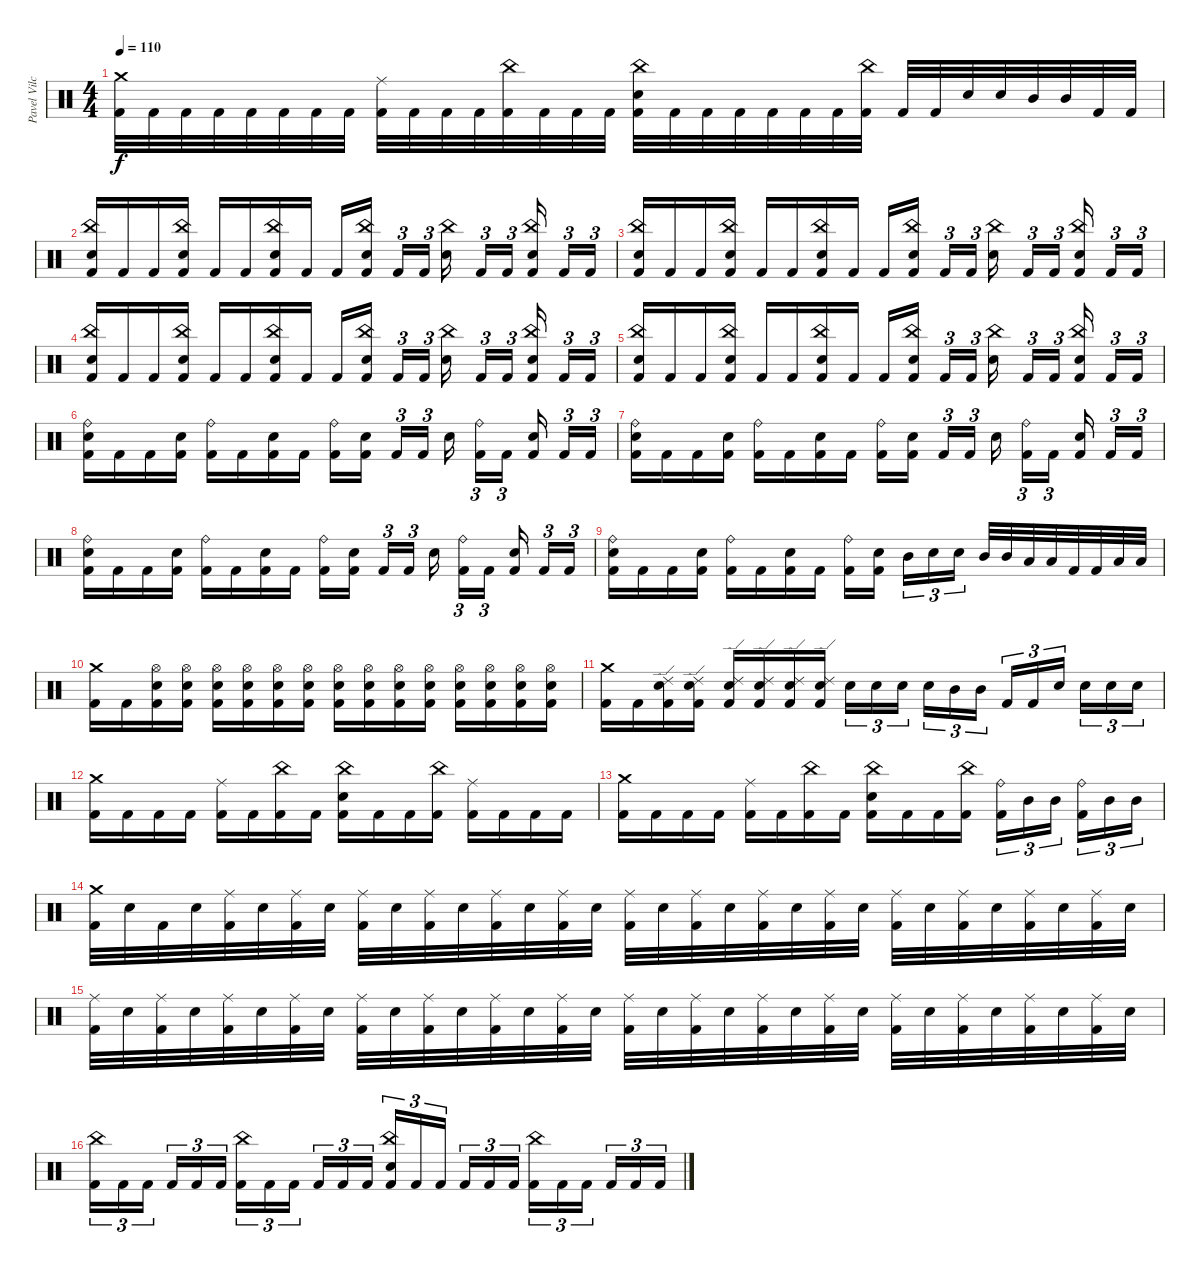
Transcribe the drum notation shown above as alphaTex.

\track ("Pavel Vilchytski" "Pavel Vilc") {instrument percussion}
\staff {score}
\articulation defaults
\ts (4 4)
\tempo 110
\clef neutral
\ks c
("Crash medium (hit)" "Kick (hit) 2").32{dy f} "Kick (hit) 2".32 "Kick (hit) 2".32 "Kick (hit) 2".32 "Kick (hit) 2".32 "Kick (hit) 2".32 "Kick (hit) 2".32 "Kick (hit) 2".32 ("Ride (middle)" "Kick (hit) 2").32 "Kick (hit) 2".32 "Kick (hit) 2".32 "Kick (hit) 2".32 ("China (hit)" "Kick (hit) 2").32 "Kick (hit) 2".32 "Kick (hit) 2".32 "Kick (hit) 2".32 ("China (hit)" "Electric Snare (hit)" "Kick (hit) 2").32 "Kick (hit) 2".32 "Kick (hit) 2".32 "Kick (hit) 2".32 "Kick (hit) 2".32 "Kick (hit) 2".32 "Kick (hit) 2".32 ("China (hit)" "Kick (hit) 2").32 "Kick (hit) 2".32 "Kick (hit) 2".32 "Electric Snare (hit)".32 "Electric Snare (hit)".32 "Mid Tom (hit)".32 "Mid Tom (hit)".32 "Kick (hit) 2".32 "Kick (hit) 2".32 |
("China (hit)" "Electric Snare (hit)" "Kick (hit) 2").16 "Kick (hit) 2".16 "Kick (hit) 2".16 ("China (hit)" "Electric Snare (hit)" "Kick (hit) 2").16 "Kick (hit) 2".16 "Kick (hit) 2".16 ("China (hit)" "Electric Snare (hit)" "Kick (hit) 2").16 "Kick (hit) 2".16 "Kick (hit) 2".16 ("China (hit)" "Electric Snare (hit)" "Kick (hit) 2").16{beam splitsecondary} "Kick (hit) 2".16{tu (3 2)} "Kick (hit) 2".16{tu (3 2) beam splitsecondary} ("China (hit)" "Electric Snare (hit)").16 "Kick (hit) 2".16{tu (3 2)} "Kick (hit) 2".16{tu (3 2) beam splitsecondary} ("China (hit)" "Electric Snare (hit)" "Kick (hit) 2").16{beam splitsecondary} "Kick (hit) 2".16{tu (3 2)} "Kick (hit) 2".16{tu (3 2)} |
("China (hit)" "Electric Snare (hit)" "Kick (hit) 2").16 "Kick (hit) 2".16 "Kick (hit) 2".16 ("China (hit)" "Electric Snare (hit)" "Kick (hit) 2").16 "Kick (hit) 2".16 "Kick (hit) 2".16 ("China (hit)" "Electric Snare (hit)" "Kick (hit) 2").16 "Kick (hit) 2".16 "Kick (hit) 2".16 ("China (hit)" "Electric Snare (hit)" "Kick (hit) 2").16{beam splitsecondary} "Kick (hit) 2".16{tu (3 2)} "Kick (hit) 2".16{tu (3 2) beam splitsecondary} ("China (hit)" "Electric Snare (hit)").16 "Kick (hit) 2".16{tu (3 2)} "Kick (hit) 2".16{tu (3 2) beam splitsecondary} ("China (hit)" "Electric Snare (hit)" "Kick (hit) 2").16{beam splitsecondary} "Kick (hit) 2".16{tu (3 2)} "Kick (hit) 2".16{tu (3 2)} |
("China (hit)" "Electric Snare (hit)" "Kick (hit) 2").16 "Kick (hit) 2".16 "Kick (hit) 2".16 ("China (hit)" "Electric Snare (hit)" "Kick (hit) 2").16 "Kick (hit) 2".16 "Kick (hit) 2".16 ("China (hit)" "Electric Snare (hit)" "Kick (hit) 2").16 "Kick (hit) 2".16 "Kick (hit) 2".16 ("China (hit)" "Electric Snare (hit)" "Kick (hit) 2").16{beam splitsecondary} "Kick (hit) 2".16{tu (3 2)} "Kick (hit) 2".16{tu (3 2) beam splitsecondary} ("China (hit)" "Electric Snare (hit)").16 "Kick (hit) 2".16{tu (3 2)} "Kick (hit) 2".16{tu (3 2) beam splitsecondary} ("China (hit)" "Electric Snare (hit)" "Kick (hit) 2").16{beam splitsecondary} "Kick (hit) 2".16{tu (3 2)} "Kick (hit) 2".16{tu (3 2)} |
("China (hit)" "Electric Snare (hit)" "Kick (hit) 2").16 "Kick (hit) 2".16 "Kick (hit) 2".16 ("China (hit)" "Electric Snare (hit)" "Kick (hit) 2").16 "Kick (hit) 2".16 "Kick (hit) 2".16 ("China (hit)" "Electric Snare (hit)" "Kick (hit) 2").16 "Kick (hit) 2".16 "Kick (hit) 2".16 ("China (hit)" "Electric Snare (hit)" "Kick (hit) 2").16{beam splitsecondary} "Kick (hit) 2".16{tu (3 2)} "Kick (hit) 2".16{tu (3 2) beam splitsecondary} ("China (hit)" "Electric Snare (hit)").16 "Kick (hit) 2".16{tu (3 2)} "Kick (hit) 2".16{tu (3 2) beam splitsecondary} ("China (hit)" "Electric Snare (hit)" "Kick (hit) 2").16{beam splitsecondary} "Kick (hit) 2".16{tu (3 2)} "Kick (hit) 2".16{tu (3 2)} |
("Ride (bell)" "Electric Snare (hit)" "Kick (hit) 2").16 "Kick (hit) 2".16 "Kick (hit) 2".16 ("Electric Snare (hit)" "Kick (hit) 2").16 ("Ride (bell)" "Kick (hit) 2").16 "Kick (hit) 2".16 ("Electric Snare (hit)" "Kick (hit) 2").16 "Kick (hit) 2".16 ("Ride (bell)" "Kick (hit) 2").16 ("Electric Snare (hit)" "Kick (hit) 2").16{beam splitsecondary} "Kick (hit) 2".16{tu (3 2)} "Kick (hit) 2".16{tu (3 2) beam splitsecondary} "Electric Snare (hit)".16 ("Ride (bell)" "Kick (hit) 2").16{tu (3 2)} "Kick (hit) 2".16{tu (3 2) beam splitsecondary} ("Electric Snare (hit)" "Kick (hit) 2").16{beam splitsecondary} "Kick (hit) 2".16{tu (3 2)} "Kick (hit) 2".16{tu (3 2)} |
("Ride (bell)" "Electric Snare (hit)" "Kick (hit) 2").16 "Kick (hit) 2".16 "Kick (hit) 2".16 ("Electric Snare (hit)" "Kick (hit) 2").16 ("Ride (bell)" "Kick (hit) 2").16 "Kick (hit) 2".16 ("Electric Snare (hit)" "Kick (hit) 2").16 "Kick (hit) 2".16 ("Ride (bell)" "Kick (hit) 2").16 ("Electric Snare (hit)" "Kick (hit) 2").16{beam splitsecondary} "Kick (hit) 2".16{tu (3 2)} "Kick (hit) 2".16{tu (3 2) beam splitsecondary} "Electric Snare (hit)".16 ("Ride (bell)" "Kick (hit) 2").16{tu (3 2)} "Kick (hit) 2".16{tu (3 2) beam splitsecondary} ("Electric Snare (hit)" "Kick (hit) 2").16{beam splitsecondary} "Kick (hit) 2".16{tu (3 2)} "Kick (hit) 2".16{tu (3 2)} |
("Ride (bell)" "Electric Snare (hit)" "Kick (hit) 2").16 "Kick (hit) 2".16 "Kick (hit) 2".16 ("Electric Snare (hit)" "Kick (hit) 2").16 ("Ride (bell)" "Kick (hit) 2").16 "Kick (hit) 2".16 ("Electric Snare (hit)" "Kick (hit) 2").16 "Kick (hit) 2".16 ("Ride (bell)" "Kick (hit) 2").16 ("Electric Snare (hit)" "Kick (hit) 2").16{beam splitsecondary} "Kick (hit) 2".16{tu (3 2)} "Kick (hit) 2".16{tu (3 2) beam splitsecondary} "Electric Snare (hit)".16 ("Ride (bell)" "Kick (hit) 2").16{tu (3 2)} "Kick (hit) 2".16{tu (3 2) beam splitsecondary} ("Electric Snare (hit)" "Kick (hit) 2").16{beam splitsecondary} "Kick (hit) 2".16{tu (3 2)} "Kick (hit) 2".16{tu (3 2)} |
("Ride (bell)" "Electric Snare (hit)" "Kick (hit) 2").16 "Kick (hit) 2".16 "Kick (hit) 2".16 ("Electric Snare (hit)" "Kick (hit) 2").16 ("Ride (bell)" "Kick (hit) 2").16 "Kick (hit) 2".16 ("Electric Snare (hit)" "Kick (hit) 2").16 "Kick (hit) 2".16 ("Ride (bell)" "Kick (hit) 2").16 ("Electric Snare (hit)" "Kick (hit) 2").16{beam splitsecondary} "Mid Tom (hit)".16{tu (3 2)} "Electric Snare (hit)".16{tu (3 2)} "Electric Snare (hit)".16{tu (3 2)} "Mid Tom (hit)".32 "Mid Tom (hit)".32 "Low Tom (hit)".32 "Low Tom (hit)".32 "Kick (hit) 2".32 "Kick (hit) 2".32 "Low Tom (hit)".32 "Low Tom (hit)".32 |
("Crash medium (hit)" "Kick (hit) 2").16 "Kick (hit) 2".16 ("Hi-Hat (open)" "Electric Snare (hit)" "Kick (hit) 2").16 ("Hi-Hat (open)" "Electric Snare (hit)" "Kick (hit) 2").16 ("Hi-Hat (open)" "Electric Snare (hit)" "Kick (hit) 2").16 ("Hi-Hat (open)" "Electric Snare (hit)" "Kick (hit) 2").16 ("Hi-Hat (open)" "Electric Snare (hit)" "Kick (hit) 2").16 ("Hi-Hat (open)" "Electric Snare (hit)" "Kick (hit) 2").16 ("Hi-Hat (open)" "Electric Snare (hit)" "Kick (hit) 2").16 ("Hi-Hat (open)" "Electric Snare (hit)" "Kick (hit) 2").16 ("Hi-Hat (open)" "Electric Snare (hit)" "Kick (hit) 2").16 ("Hi-Hat (open)" "Electric Snare (hit)" "Kick (hit) 2").16 ("Hi-Hat (open)" "Electric Snare (hit)" "Kick (hit) 2").16 ("Hi-Hat (open)" "Electric Snare (hit)" "Kick (hit) 2").16 ("Hi-Hat (open)" "Electric Snare (hit)" "Kick (hit) 2").16 ("Hi-Hat (open)" "Electric Snare (hit)" "Kick (hit) 2").16 |
("Crash medium (hit)" "Kick (hit) 2").16 "Kick (hit) 2".16 ("Ride (edge) 2" "Electric Snare (hit)" "Kick (hit) 2").16 ("Ride (edge) 2" "Electric Snare (hit)" "Kick (hit) 2").16 ("Ride (edge) 2" "Electric Snare (hit)" "Kick (hit) 2").16 ("Ride (edge) 2" "Electric Snare (hit)" "Kick (hit) 2").16 ("Ride (edge) 2" "Electric Snare (hit)" "Kick (hit) 2").16 ("Ride (edge) 2" "Electric Snare (hit)" "Kick (hit) 2").16 "Electric Snare (hit)".16{tu (3 2)} "Electric Snare (hit)".16{tu (3 2)} "Electric Snare (hit)".16{tu (3 2) beam splitsecondary} "Electric Snare (hit)".16{tu (3 2)} "Mid Tom (hit)".16{tu (3 2)} "Mid Tom (hit)".16{tu (3 2)} "Kick (hit) 2".16{tu (3 2)} "Kick (hit) 2".16{tu (3 2)} "Electric Snare (hit)".16{tu (3 2) beam splitsecondary} "Electric Snare (hit)".16{tu (3 2)} "Electric Snare (hit)".16{tu (3 2)} "Electric Snare (hit)".16{tu (3 2)} |
("Crash medium (hit)" "Kick (hit) 2").16 "Kick (hit) 2".16 "Kick (hit) 2".16 "Kick (hit) 2".16 ("Ride (middle)" "Kick (hit) 2").16 "Kick (hit) 2".16 ("China (hit)" "Kick (hit) 2").16 "Kick (hit) 2".16 ("China (hit)" "Electric Snare (hit)" "Kick (hit) 2").16 "Kick (hit) 2".16 "Kick (hit) 2".16 ("China (hit)" "Kick (hit) 2").16 ("Ride (middle)" "Kick (hit) 2").16 "Kick (hit) 2".16 "Kick (hit) 2".16 "Kick (hit) 2".16 |
("Crash medium (hit)" "Kick (hit) 2").16 "Kick (hit) 2".16 "Kick (hit) 2".16 "Kick (hit) 2".16 ("Ride (middle)" "Kick (hit) 2").16 "Kick (hit) 2".16 ("China (hit)" "Kick (hit) 2").16 "Kick (hit) 2".16 ("China (hit)" "Electric Snare (hit)" "Kick (hit) 2").16 "Kick (hit) 2".16 "Kick (hit) 2".16 ("China (hit)" "Kick (hit) 2").16 ("Ride (bell)" "Kick (hit) 2").16{tu (3 2)} "Mid Tom (hit)".16{tu (3 2)} "Mid Tom (hit)".16{tu (3 2) beam splitsecondary} ("Ride (bell)" "Kick (hit) 2").16{tu (3 2)} "Mid Tom (hit)".16{tu (3 2)} "Mid Tom (hit)".16{tu (3 2)} |
("Crash medium (hit)" "Kick (hit) 2").32 "Electric Snare (hit)".32 "Kick (hit) 2".32 "Electric Snare (hit)".32 ("Ride (middle)" "Kick (hit) 2").32 "Electric Snare (hit)".32 ("Ride (middle)" "Kick (hit) 2").32 "Electric Snare (hit)".32 ("Ride (middle)" "Kick (hit) 2").32 "Electric Snare (hit)".32 ("Ride (middle)" "Kick (hit) 2").32 "Electric Snare (hit)".32 ("Ride (middle)" "Kick (hit) 2").32 "Electric Snare (hit)".32 ("Ride (middle)" "Kick (hit) 2").32 "Electric Snare (hit)".32 ("Ride (middle)" "Kick (hit) 2").32 "Electric Snare (hit)".32 ("Ride (middle)" "Kick (hit) 2").32 "Electric Snare (hit)".32 ("Ride (middle)" "Kick (hit) 2").32 "Electric Snare (hit)".32 ("Ride (middle)" "Kick (hit) 2").32 "Electric Snare (hit)".32 ("Ride (middle)" "Kick (hit) 2").32 "Electric Snare (hit)".32 ("Ride (middle)" "Kick (hit) 2").32 "Electric Snare (hit)".32 ("Ride (middle)" "Kick (hit) 2").32 "Electric Snare (hit)".32 ("Ride (middle)" "Kick (hit) 2").32 "Electric Snare (hit)".32 |
("Ride (middle)" "Kick (hit) 2").32 "Electric Snare (hit)".32 ("Ride (middle)" "Kick (hit) 2").32 "Electric Snare (hit)".32 ("Ride (middle)" "Kick (hit) 2").32 "Electric Snare (hit)".32 ("Ride (middle)" "Kick (hit) 2").32 "Electric Snare (hit)".32 ("Ride (middle)" "Kick (hit) 2").32 "Electric Snare (hit)".32 ("Ride (middle)" "Kick (hit) 2").32 "Electric Snare (hit)".32 ("Ride (middle)" "Kick (hit) 2").32 "Electric Snare (hit)".32 ("Ride (middle)" "Kick (hit) 2").32 "Electric Snare (hit)".32 ("Ride (middle)" "Kick (hit) 2").32 "Electric Snare (hit)".32 ("Ride (middle)" "Kick (hit) 2").32 "Electric Snare (hit)".32 ("Ride (middle)" "Kick (hit) 2").32 "Electric Snare (hit)".32 ("Ride (middle)" "Kick (hit) 2").32 "Electric Snare (hit)".32 ("Ride (middle)" "Kick (hit) 2").32 "Electric Snare (hit)".32 ("Ride (middle)" "Kick (hit) 2").32 "Electric Snare (hit)".32 ("Ride (middle)" "Kick (hit) 2").32 "Electric Snare (hit)".32 ("Ride (middle)" "Kick (hit) 2").32 "Electric Snare (hit)".32 |
("China (hit)" "Kick (hit) 2").16{tu (3 2)} "Kick (hit) 2".16{tu (3 2)} "Kick (hit) 2".16{tu (3 2) beam splitsecondary} "Kick (hit) 2".16{tu (3 2)} "Kick (hit) 2".16{tu (3 2)} "Kick (hit) 2".16{tu (3 2)} ("China (hit)" "Kick (hit) 2").16{tu (3 2)} "Kick (hit) 2".16{tu (3 2)} "Kick (hit) 2".16{tu (3 2) beam splitsecondary} "Kick (hit) 2".16{tu (3 2)} "Kick (hit) 2".16{tu (3 2)} "Kick (hit) 2".16{tu (3 2)} ("China (hit)" "Electric Snare (hit)" "Kick (hit) 2").16{tu (3 2)} "Kick (hit) 2".16{tu (3 2)} "Kick (hit) 2".16{tu (3 2) beam splitsecondary} "Kick (hit) 2".16{tu (3 2)} "Kick (hit) 2".16{tu (3 2)} "Kick (hit) 2".16{tu (3 2)} ("China (hit)" "Kick (hit) 2").16{tu (3 2)} "Kick (hit) 2".16{tu (3 2)} "Kick (hit) 2".16{tu (3 2) beam splitsecondary} "Kick (hit) 2".16{tu (3 2)} "Kick (hit) 2".16{tu (3 2)} "Kick (hit) 2".16{tu (3 2)}
